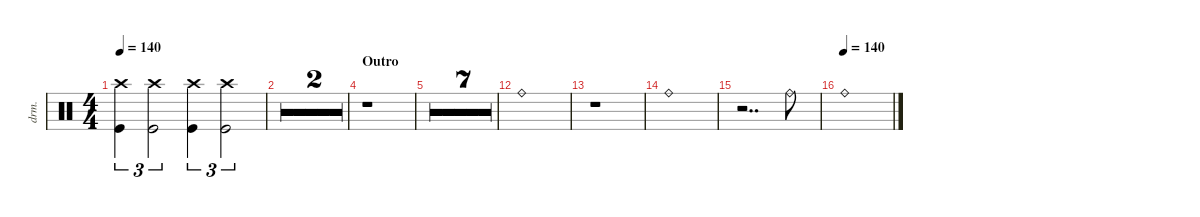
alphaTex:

\defaultSystemsLayout 4
\hideDynamics
\bracketExtendMode nobrackets
\otherSystemsTrackNameOrientation horizontal
\track ("Drums" "drm.") {multiBarRest instrument percussion}
\staff
\articulation defaults
\ts (4 4)
\beaming (8 2 2 2 2)
\tempo 140
\clef neutral
\ks c
("Kick (hit)" "Crash high (hit)").4{tu (3 2) dy f} ("Kick (hit)" "Crash high (hit)").2{tu (3 2)} ("Kick (hit)" "Crash high (hit)").4{tu (3 2)} ("Kick (hit)" "Crash high (hit)").2{tu (3 2)} |
r.1 |
r.1 |
\section ("" "Outro")
r.1 |
r.1 |
r.1 |
r.1 |
r.1 |
r.1 |
r.1 |
r.1 |
"Ride (bell)".1{dy p} |
r.1 |
"Ride (bell)".1 |
r.2{dd} "Ride (bell)".8 |
\tempo (140)
"Ride (bell)".1
